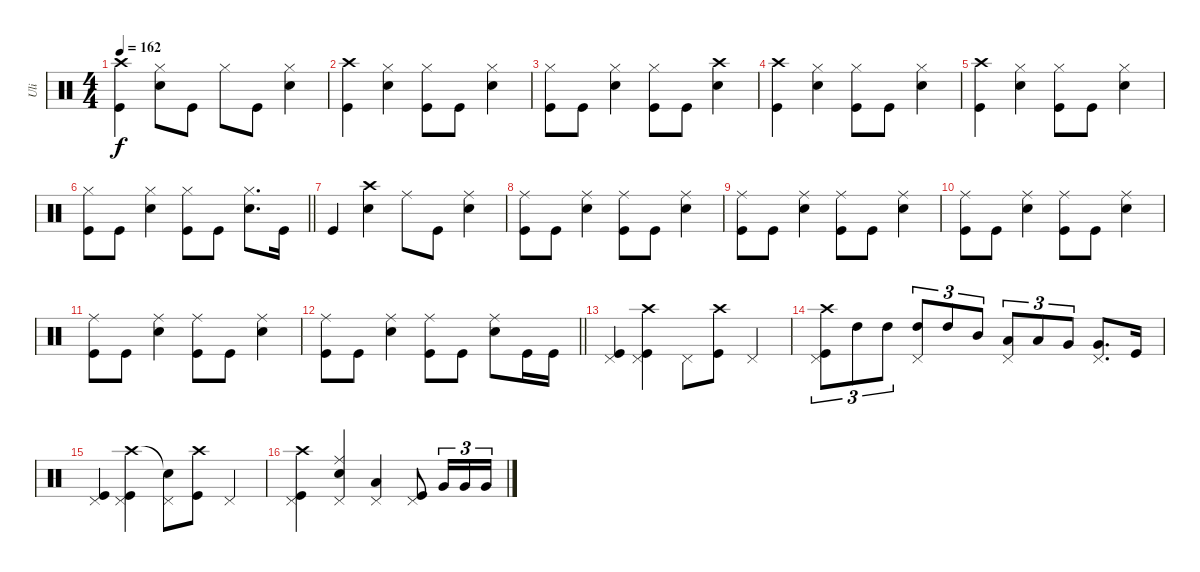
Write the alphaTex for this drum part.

\track ("Uli" "Uli") {instrument percussion}
\staff {score}
\articulation defaults
\ts (4 4)
\tempo 162
\clef neutral
\ks aminor
("Crash high (hit)" "Kick (hit)").4{dy f} ("Hi-Hat (closed)" "Snare (hit) 2").8 "Kick (hit)".8 "Hi-Hat (closed)".8 "Kick (hit)".8 ("Hi-Hat (closed)" "Snare (hit) 2").4 |
("Crash high (hit)" "Kick (hit)").4 ("Hi-Hat (closed)" "Snare (hit) 2").4 ("Hi-Hat (closed)" "Kick (hit)").8 "Kick (hit)".8 ("Hi-Hat (closed)" "Snare (hit) 2").4 |
("Hi-Hat (closed)" "Kick (hit)").8 "Kick (hit)".8 ("Hi-Hat (closed)" "Snare (hit) 2").4 ("Hi-Hat (closed)" "Kick (hit)").8 "Kick (hit)".8 ("Crash high (hit)" "Snare (hit) 2").4 |
("Crash high (hit)" "Kick (hit)").4 ("Hi-Hat (closed)" "Snare (hit) 2").4 ("Hi-Hat (closed)" "Kick (hit)").8 "Kick (hit)".8 ("Hi-Hat (closed)" "Snare (hit) 2").4 |
("Crash high (hit)" "Kick (hit)").4 ("Hi-Hat (closed)" "Snare (hit) 2").4 ("Hi-Hat (closed)" "Kick (hit)").8 "Kick (hit)".8 ("Hi-Hat (closed)" "Snare (hit) 2").4 |
\barLineRight lightlight
("Hi-Hat (closed)" "Kick (hit)").8 "Kick (hit)".8 ("Hi-Hat (closed)" "Snare (hit) 2").4 ("Hi-Hat (closed)" "Kick (hit)").8 "Kick (hit)".8 ("Hi-Hat (closed)" "Snare (hit) 2").8{d} "Kick (hit)".16 |
"Kick (hit)".4 ("Crash high (hit)" "Snare (hit) 2").4 "Ride (middle)".8 "Kick (hit)".8 ("Ride (middle)" "Snare (hit) 2").4 |
("Ride (middle)" "Kick (hit)").8 "Kick (hit)".8 ("Ride (middle)" "Snare (hit) 2").4 ("Ride (middle)" "Kick (hit)").8 "Kick (hit)".8 ("Ride (middle)" "Snare (hit) 2").4 |
("Ride (middle)" "Kick (hit)").8 "Kick (hit)".8 ("Ride (middle)" "Snare (hit) 2").4 ("Ride (middle)" "Kick (hit)").8 "Kick (hit)".8 ("Ride (middle)" "Snare (hit) 2").4 |
("Ride (middle)" "Kick (hit)").8 "Kick (hit)".8 ("Ride (middle)" "Snare (hit) 2").4 ("Ride (middle)" "Kick (hit)").8 "Kick (hit)".8 ("Ride (middle)" "Snare (hit) 2").4 |
("Ride (middle)" "Kick (hit)").8 "Kick (hit)".8 ("Ride (middle)" "Snare (hit) 2").4 ("Ride (middle)" "Kick (hit)").8 "Kick (hit)".8 ("Ride (middle)" "Snare (hit) 2").4 |
\barLineRight lightlight
("Ride (middle)" "Kick (hit)").8 "Kick (hit)".8 ("Ride (middle)" "Snare (hit) 2").4 ("Ride (middle)" "Kick (hit)").8 "Kick (hit)".8 ("Ride (middle)" "Snare (hit) 2").8 "Kick (hit)".16 "Kick (hit)".16 |
("Pedal Hi-Hat (hit)" "Kick (hit)").4 ("Crash high (hit)" "Pedal Hi-Hat (hit)" "Kick (hit)").4 "Pedal Hi-Hat (hit)".8 ("Crash high (hit)" "Kick (hit)").8 "Pedal Hi-Hat (hit)".4 |
("Crash high (hit)" "Pedal Hi-Hat (hit)" "Kick (hit)").8{tu (3 2)} "High Tom (hit)".8{tu (3 2)} "High Tom (hit)".8{tu (3 2)} ("High Tom (hit)" "Pedal Hi-Hat (hit)").8{tu (3 2)} "High Tom (hit)".8{tu (3 2)} "Mid Tom (hit)".8{tu (3 2)} ("Low Tom (hit)" "Pedal Hi-Hat (hit)").8{tu (3 2)} "Low Tom (hit)".8{tu (3 2)} "Very Low Tom (hit)".8{tu (3 2)} ("Very Low Tom (hit)" "Pedal Hi-Hat (hit)").8{d} "Kick (hit)".16 |
("Pedal Hi-Hat (hit)" "Kick (hit)").4 ("Crash high (hit)" "Pedal Hi-Hat (hit)" "Kick (hit)").4 ("Snare (hit)"{t} "Pedal Hi-Hat (hit)").8 ("Crash high (hit)" "Kick (hit)").8 "Pedal Hi-Hat (hit)".4 |
("Crash high (hit)" "Pedal Hi-Hat (hit)" "Kick (hit)").4 ("Ride (middle)" "Snare (hit) 2" "Pedal Hi-Hat (hit)").4 ("Low Tom (hit)" "Pedal Hi-Hat (hit)").4 ("Pedal Hi-Hat (hit)" "Kick (hit)").8 "Very Low Tom (hit)".16{tu (3 2)} "Very Low Tom (hit)".16{tu (3 2)} "Very Low Tom (hit)".16{tu (3 2)}
